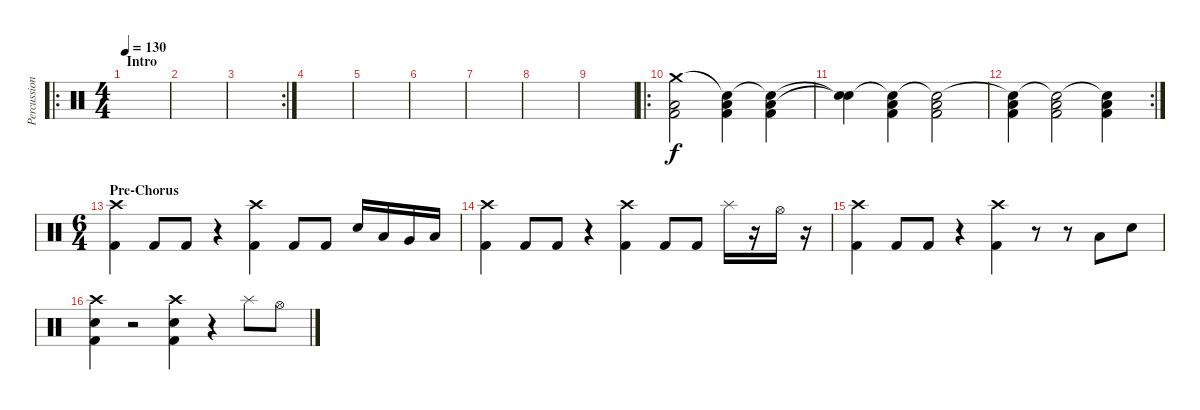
\track ("Percussion" "Percussion") {instrument percussion}
\staff {score}
\articulation defaults
\ro
\ts (4 4)
\section ("" "Intro")
\tempo 130
\clef neutral
\ks c
|
|
\rc 2
|
|
|
|
|
|
|
\ro
("Crash medium (hit)" "Low Tom (hit)" "Kick (hit) 2").2 ("Snare (hit)"{t} "Low Tom (hit)" "Kick (hit) 2").4 ("Snare (hit)"{t} "Low Tom (hit)" "Kick (hit) 2").4 |
("Snare (hit)"{t} "Snare (hit)"{t}).4 ("Snare (hit)"{t} "Low Tom (hit)" "Kick (hit) 2").4 ("Snare (hit)"{t} "Low Tom (hit)" "Kick (hit) 2").2 |
\rc 2
("Snare (hit)"{t} "Low Tom (hit)" "Kick (hit) 2").4 ("Snare (hit)"{t} "Low Tom (hit)" "Kick (hit) 2").2 ("Snare (hit)"{t} "Low Tom (hit)" "Kick (hit) 2").4 |
\ts (6 4)
\section ("" "Pre-Chorus")
("Crash high (hit)" "Kick (hit) 2").4 "Kick (hit) 2".8 "Kick (hit) 2".8 r.4 ("Crash high (hit)" "Kick (hit) 2").4 "Kick (hit) 2".8 "Kick (hit) 2".8 "Electric Snare (hit)".16 "Low Tom (hit)".16 "Very Low Tom (hit)".16 "Low Floor Tom (hit)".16 |
("Crash high (hit)" "Kick (hit) 2").4 "Kick (hit) 2".8 "Kick (hit) 2".8 r.4 ("Crash high (hit)" "Kick (hit) 2").4 "Kick (hit) 2".8 "Kick (hit) 2".8 "Splash (hit)".16 r.16 "Hi-Hat (open)".16 r.16 |
("Crash high (hit)" "Kick (hit) 2").4 "Kick (hit) 2".8 "Kick (hit) 2".8 r.4 ("Crash high (hit)" "Kick (hit) 2").4 r.8 r.8 "Low Tom (hit)".8 "Snare (hit) 2".8 |
("Crash high (hit)" "Snare (hit) 2" "Kick (hit) 2").4 r.2 ("Crash high (hit)" "Snare (hit) 2" "Kick (hit) 2").4 r.4 "Splash (hit)".8 "Hi-Hat (open)".8
